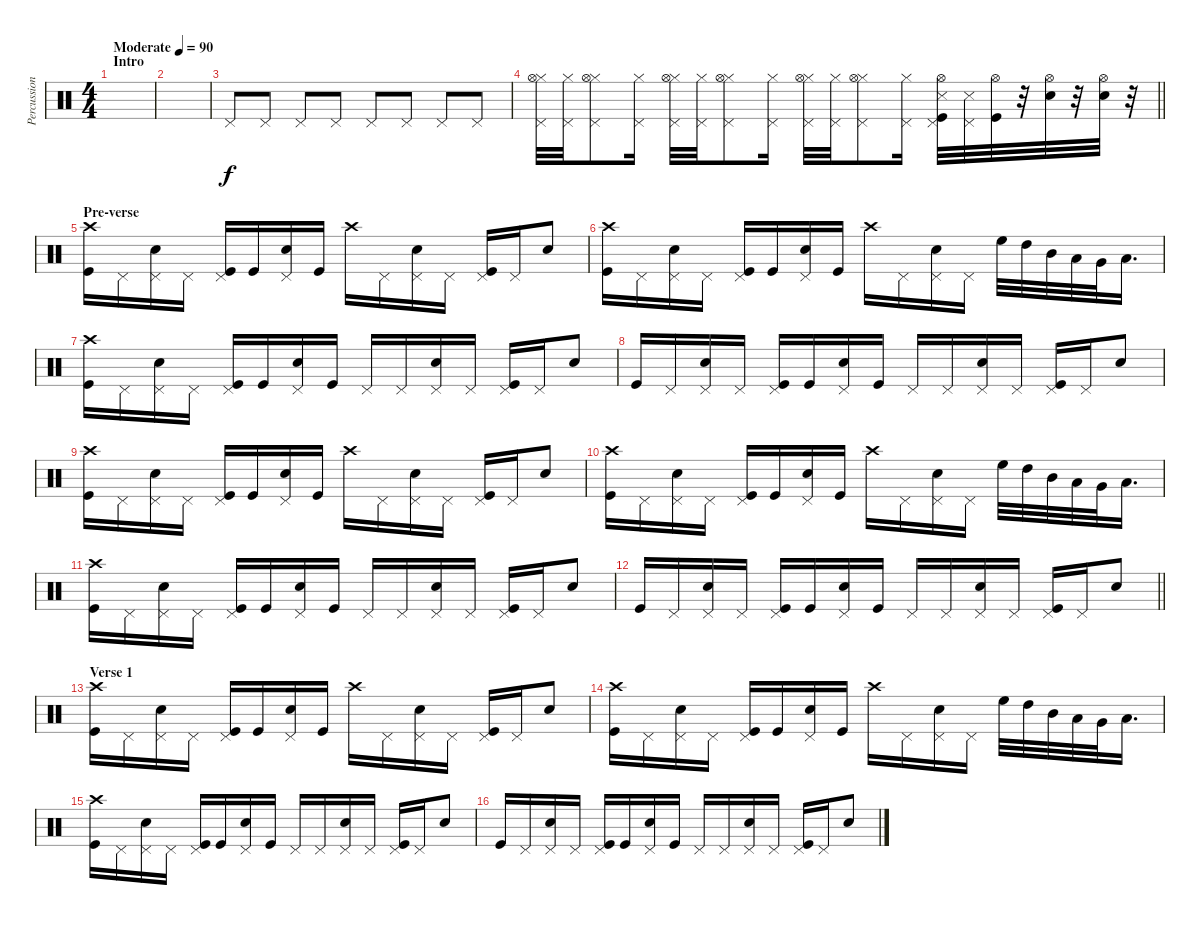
\track ("Percussion" "Percussion") {instrument percussion}
\staff {score}
\articulation defaults
\ts (4 4)
\section ("" "Intro")
\tempo (90 "Moderate")
\clef neutral
\ks c
|
|
"Pedal Hi-Hat (hit)".8 "Pedal Hi-Hat (hit)".8 "Pedal Hi-Hat (hit)".8 "Pedal Hi-Hat (hit)".8 "Pedal Hi-Hat (hit)".8 "Pedal Hi-Hat (hit)".8 "Pedal Hi-Hat (hit)".8 "Pedal Hi-Hat (hit)".8 |
\barLineRight lightlight
("Pedal Hi-Hat (hit)" "Hi-Hat (closed)" "Hi-Hat (open)").32 ("Pedal Hi-Hat (hit)" "Hi-Hat (closed)").32 ("Pedal Hi-Hat (hit)" "Hi-Hat (closed)" "Hi-Hat (open)").8 ("Pedal Hi-Hat (hit)" "Hi-Hat (closed)").16 ("Pedal Hi-Hat (hit)" "Hi-Hat (closed)" "Hi-Hat (open)").32 ("Pedal Hi-Hat (hit)" "Hi-Hat (closed)").32 ("Pedal Hi-Hat (hit)" "Hi-Hat (closed)" "Hi-Hat (open)").8 ("Pedal Hi-Hat (hit)" "Hi-Hat (closed)").16 ("Pedal Hi-Hat (hit)" "Hi-Hat (closed)" "Hi-Hat (open)").32 ("Pedal Hi-Hat (hit)" "Hi-Hat (closed)").32 ("Pedal Hi-Hat (hit)" "Hi-Hat (closed)" "Hi-Hat (open)").8 ("Pedal Hi-Hat (hit)" "Hi-Hat (closed)").16 ("Kick (hit)" "Pedal Hi-Hat (hit)" "Snare (side stick) 3" "Hi-Hat (open)").32 ("Pedal Hi-Hat (hit)" "Snare (side stick) 3").32 ("Kick (hit)" "Hi-Hat (open)").32 r.32 ("Snare (hit) 2" "Hi-Hat (open)").32 r.32 ("Snare (hit) 2" "Hi-Hat (open)").32 r.32 |
\section ("" "Pre-verse")
("Crash high (hit)" "Kick (hit)").16 "Pedal Hi-Hat (hit)".16 ("Pedal Hi-Hat (hit)" "Snare (hit) 2").16 "Pedal Hi-Hat (hit)".16 ("Pedal Hi-Hat (hit)" "Kick (hit)").16 "Kick (hit)".16 ("Pedal Hi-Hat (hit)" "Snare (hit) 2").16 "Kick (hit)".16 "Crash high (hit)".16 "Pedal Hi-Hat (hit)".16 ("Pedal Hi-Hat (hit)" "Snare (hit) 2").16 "Pedal Hi-Hat (hit)".16 ("Pedal Hi-Hat (hit)" "Kick (hit)").16 "Pedal Hi-Hat (hit)".16 "Snare (hit) 2".8 |
("Crash high (hit)" "Kick (hit)").16 "Pedal Hi-Hat (hit)".16 ("Pedal Hi-Hat (hit)" "Snare (hit) 2").16 "Pedal Hi-Hat (hit)".16 ("Pedal Hi-Hat (hit)" "Kick (hit)").16 "Kick (hit)".16 ("Pedal Hi-Hat (hit)" "Snare (hit) 2").16 "Kick (hit)".16 "Crash high (hit)".16 "Pedal Hi-Hat (hit)".16 ("Pedal Hi-Hat (hit)" "Snare (hit) 2").16 "Pedal Hi-Hat (hit)".16 "High Floor Tom (hit)".32 "High Tom (hit)".32 "Mid Tom (hit)".32 "Low Tom (hit)".32 "Very Low Tom (hit)".32 "Low Floor Tom (hit)".16{d} |
("Crash high (hit)" "Kick (hit)").16 "Pedal Hi-Hat (hit)".16 ("Pedal Hi-Hat (hit)" "Snare (hit) 2").16 "Pedal Hi-Hat (hit)".16 ("Pedal Hi-Hat (hit)" "Kick (hit)").16 "Kick (hit)".16 ("Pedal Hi-Hat (hit)" "Snare (hit) 2").16 "Kick (hit)".16 "Pedal Hi-Hat (hit)".16 "Pedal Hi-Hat (hit)".16 ("Pedal Hi-Hat (hit)" "Snare (hit) 2").16 "Pedal Hi-Hat (hit)".16 ("Pedal Hi-Hat (hit)" "Kick (hit)").16 "Pedal Hi-Hat (hit)".16 "Snare (hit) 2".8 |
"Kick (hit)".16 "Pedal Hi-Hat (hit)".16 ("Pedal Hi-Hat (hit)" "Snare (hit) 2").16 "Pedal Hi-Hat (hit)".16 ("Pedal Hi-Hat (hit)" "Kick (hit)").16 "Kick (hit)".16 ("Pedal Hi-Hat (hit)" "Snare (hit) 2").16 "Kick (hit)".16 "Pedal Hi-Hat (hit)".16 "Pedal Hi-Hat (hit)".16 ("Pedal Hi-Hat (hit)" "Snare (hit) 2").16 "Pedal Hi-Hat (hit)".16 ("Pedal Hi-Hat (hit)" "Kick (hit)").16 "Pedal Hi-Hat (hit)".16 "Snare (hit) 2".8 |
("Crash high (hit)" "Kick (hit)").16 "Pedal Hi-Hat (hit)".16 ("Pedal Hi-Hat (hit)" "Snare (hit) 2").16 "Pedal Hi-Hat (hit)".16 ("Pedal Hi-Hat (hit)" "Kick (hit)").16 "Kick (hit)".16 ("Pedal Hi-Hat (hit)" "Snare (hit) 2").16 "Kick (hit)".16 "Crash high (hit)".16 "Pedal Hi-Hat (hit)".16 ("Pedal Hi-Hat (hit)" "Snare (hit) 2").16 "Pedal Hi-Hat (hit)".16 ("Pedal Hi-Hat (hit)" "Kick (hit)").16 "Pedal Hi-Hat (hit)".16 "Snare (hit) 2".8 |
("Crash high (hit)" "Kick (hit)").16 "Pedal Hi-Hat (hit)".16 ("Pedal Hi-Hat (hit)" "Snare (hit) 2").16 "Pedal Hi-Hat (hit)".16 ("Pedal Hi-Hat (hit)" "Kick (hit)").16 "Kick (hit)".16 ("Pedal Hi-Hat (hit)" "Snare (hit) 2").16 "Kick (hit)".16 "Crash high (hit)".16 "Pedal Hi-Hat (hit)".16 ("Pedal Hi-Hat (hit)" "Snare (hit) 2").16 "Pedal Hi-Hat (hit)".16 "High Floor Tom (hit)".32 "High Tom (hit)".32 "Mid Tom (hit)".32 "Low Tom (hit)".32 "Very Low Tom (hit)".32 "Low Floor Tom (hit)".16{d} |
("Crash high (hit)" "Kick (hit)").16 "Pedal Hi-Hat (hit)".16 ("Pedal Hi-Hat (hit)" "Snare (hit) 2").16 "Pedal Hi-Hat (hit)".16 ("Pedal Hi-Hat (hit)" "Kick (hit)").16 "Kick (hit)".16 ("Pedal Hi-Hat (hit)" "Snare (hit) 2").16 "Kick (hit)".16 "Pedal Hi-Hat (hit)".16 "Pedal Hi-Hat (hit)".16 ("Pedal Hi-Hat (hit)" "Snare (hit) 2").16 "Pedal Hi-Hat (hit)".16 ("Pedal Hi-Hat (hit)" "Kick (hit)").16 "Pedal Hi-Hat (hit)".16 "Snare (hit) 2".8 |
\barLineRight lightlight "Kick (hit)".16 "Pedal Hi-Hat (hit)".16
("Pedal Hi-Hat (hit)" "Snare (hit) 2").16 "Pedal Hi-Hat (hit)".16 ("Pedal Hi-Hat (hit)" "Kick (hit)").16 "Kick (hit)".16 ("Pedal Hi-Hat (hit)" "Snare (hit) 2").16 "Kick (hit)".16 "Pedal Hi-Hat (hit)".16 "Pedal Hi-Hat (hit)".16 ("Pedal Hi-Hat (hit)" "Snare (hit) 2").16 "Pedal Hi-Hat (hit)".16 ("Pedal Hi-Hat (hit)" "Kick (hit)").16 "Pedal Hi-Hat (hit)".16 "Snare (hit) 2".8 |
\section ("" "Verse 1")
("Crash high (hit)" "Kick (hit)").16 "Pedal Hi-Hat (hit)".16 ("Pedal Hi-Hat (hit)" "Snare (hit) 2").16 "Pedal Hi-Hat (hit)".16 ("Pedal Hi-Hat (hit)" "Kick (hit)").16 "Kick (hit)".16 ("Pedal Hi-Hat (hit)" "Snare (hit) 2").16 "Kick (hit)".16 "Crash high (hit)".16 "Pedal Hi-Hat (hit)".16 ("Pedal Hi-Hat (hit)" "Snare (hit) 2").16 "Pedal Hi-Hat (hit)".16 ("Pedal Hi-Hat (hit)" "Kick (hit)").16 "Pedal Hi-Hat (hit)".16 "Snare (hit) 2".8 |
("Crash high (hit)" "Kick (hit)").16 "Pedal Hi-Hat (hit)".16 ("Pedal Hi-Hat (hit)" "Snare (hit) 2").16 "Pedal Hi-Hat (hit)".16 ("Pedal Hi-Hat (hit)" "Kick (hit)").16 "Kick (hit)".16 ("Pedal Hi-Hat (hit)" "Snare (hit) 2").16 "Kick (hit)".16 "Crash high (hit)".16 "Pedal Hi-Hat (hit)".16 ("Pedal Hi-Hat (hit)" "Snare (hit) 2").16 "Pedal Hi-Hat (hit)".16 "High Floor Tom (hit)".32 "High Tom (hit)".32 "Mid Tom (hit)".32 "Low Tom (hit)".32 "Very Low Tom (hit)".32 "Low Floor Tom (hit)".16{d} |
("Crash high (hit)" "Kick (hit)").16 "Pedal Hi-Hat (hit)".16 ("Pedal Hi-Hat (hit)" "Snare (hit) 2").16 "Pedal Hi-Hat (hit)".16 ("Pedal Hi-Hat (hit)" "Kick (hit)").16 "Kick (hit)".16 ("Pedal Hi-Hat (hit)" "Snare (hit) 2").16 "Kick (hit)".16 "Pedal Hi-Hat (hit)".16 "Pedal Hi-Hat (hit)".16 ("Pedal Hi-Hat (hit)" "Snare (hit) 2").16 "Pedal Hi-Hat (hit)".16 ("Pedal Hi-Hat (hit)" "Kick (hit)").16 "Pedal Hi-Hat (hit)".16 "Snare (hit) 2".8 |
"Kick (hit)".16 "Pedal Hi-Hat (hit)".16 ("Pedal Hi-Hat (hit)" "Snare (hit) 2").16 "Pedal Hi-Hat (hit)".16 ("Pedal Hi-Hat (hit)" "Kick (hit)").16 "Kick (hit)".16 ("Pedal Hi-Hat (hit)" "Snare (hit) 2").16 "Kick (hit)".16 "Pedal Hi-Hat (hit)".16 "Pedal Hi-Hat (hit)".16 ("Pedal Hi-Hat (hit)" "Snare (hit) 2").16 "Pedal Hi-Hat (hit)".16 ("Pedal Hi-Hat (hit)" "Kick (hit)").16 "Pedal Hi-Hat (hit)".16 "Snare (hit) 2".8
